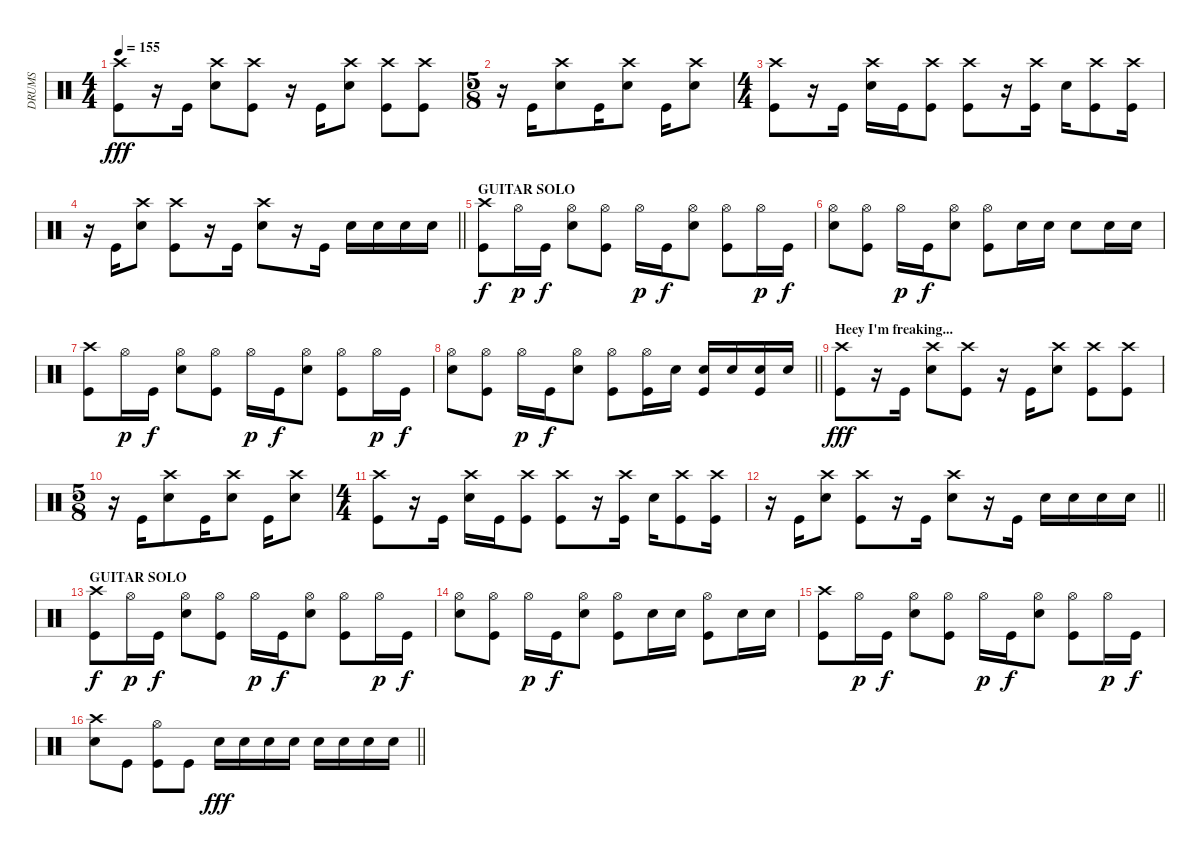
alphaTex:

\track ("DRUMS" "DRUMS") {instrument percussion}
\staff {score}
\articulation defaults
\ts (4 4)
\tempo 155
\clef neutral
\ks c
("Kick (hit)" "Crash high (hit)").8{dy fff} r.16 "Kick (hit)".16 ("Snare (hit) 2" "Crash high (hit)").8 ("Kick (hit)" "Crash high (hit)").8 r.16 "Kick (hit)".16 ("Snare (hit) 2" "Crash high (hit)").8 ("Kick (hit)" "Crash high (hit)").8 ("Kick (hit)" "Crash high (hit)").8 |
\ts (5 8)
r.16 "Kick (hit)".16 ("Snare (hit) 2" "Crash high (hit)").8 "Kick (hit)".16 ("Snare (hit) 2" "Crash high (hit)").8 "Kick (hit)".16 ("Snare (hit) 2" "Crash high (hit)").8 |
\ts (4 4)
("Kick (hit)" "Crash high (hit)").8 r.16 "Kick (hit)".16 ("Snare (hit) 2" "Crash high (hit)").16 "Kick (hit)".16 ("Kick (hit)" "Crash high (hit)").8 ("Kick (hit)" "Crash high (hit)").8 r.16 ("Kick (hit)" "Crash high (hit)").16 "Snare (hit) 2".16 ("Kick (hit)" "Crash high (hit)").8 ("Kick (hit)" "Crash high (hit)").16 |
\barLineRight lightlight
r.16 "Kick (hit)".16 ("Snare (hit) 2" "Crash high (hit)").8 ("Kick (hit)" "Crash high (hit)").8 r.16 "Kick (hit)".16 ("Snare (hit) 2" "Crash high (hit)").8 r.16 "Kick (hit)".16 "Snare (hit) 2".16 "Snare (hit) 2".16 "Snare (hit) 2".16 "Snare (hit) 2".16 |
\section ("" "GUITAR SOLO")
("Crash high (hit)" "Kick (hit)").8{dy f} "Hi-Hat (open)".16{dy p} "Kick (hit)".16{dy f} ("Snare (hit) 2" "Hi-Hat (open)").8 ("Hi-Hat (open)" "Kick (hit)").8 "Hi-Hat (open)".16{dy p} "Kick (hit)".16{dy f} ("Snare (hit) 2" "Hi-Hat (open)").8 ("Kick (hit)" "Hi-Hat (open)").8 "Hi-Hat (open)".16{dy p} "Kick (hit)".16{dy f} |
("Snare (hit) 2" "Hi-Hat (open)").8 ("Hi-Hat (open)" "Kick (hit)").8 "Hi-Hat (open)".16{dy p} "Kick (hit)".16{dy f} ("Snare (hit) 2" "Hi-Hat (open)").8 ("Kick (hit)" "Hi-Hat (open)").8 "Snare (hit) 2".16 "Snare (hit) 2".16 "Snare (hit) 2".8 "Snare (hit) 2".16 "Snare (hit) 2".16 |
("Crash high (hit)" "Kick (hit)").8 "Hi-Hat (open)".16{dy p} "Kick (hit)".16{dy f} ("Snare (hit) 2" "Hi-Hat (open)").8 ("Hi-Hat (open)" "Kick (hit)").8 "Hi-Hat (open)".16{dy p} "Kick (hit)".16{dy f} ("Snare (hit) 2" "Hi-Hat (open)").8 ("Kick (hit)" "Hi-Hat (open)").8 "Hi-Hat (open)".16{dy p} "Kick (hit)".16{dy f} |
\barLineRight lightlight
("Snare (hit) 2" "Hi-Hat (open)").8 ("Hi-Hat (open)" "Kick (hit)").8 "Hi-Hat (open)".16{dy p} "Kick (hit)".16{dy f} ("Snare (hit) 2" "Hi-Hat (open)").8 ("Kick (hit)" "Hi-Hat (open)").8 ("Hi-Hat (open)" "Kick (hit)").16 "Snare (hit) 2".16 ("Snare (hit) 2" "Kick (hit)").16 "Snare (hit) 2".16 ("Snare (hit) 2" "Kick (hit)").16 "Snare (hit) 2".16 |
\section ("" "Heey I'm freaking...")
("Kick (hit)" "Crash high (hit)").8{dy fff} r.16 "Kick (hit)".16 ("Snare (hit) 2" "Crash high (hit)").8 ("Kick (hit)" "Crash high (hit)").8 r.16 "Kick (hit)".16 ("Snare (hit) 2" "Crash high (hit)").8 ("Kick (hit)" "Crash high (hit)").8 ("Kick (hit)" "Crash high (hit)").8 |
\ts (5 8)
r.16 "Kick (hit)".16 ("Snare (hit) 2" "Crash high (hit)").8 "Kick (hit)".16 ("Snare (hit) 2" "Crash high (hit)").8 "Kick (hit)".16 ("Snare (hit) 2" "Crash high (hit)").8 |
\ts (4 4)
("Kick (hit)" "Crash high (hit)").8 r.16 "Kick (hit)".16 ("Snare (hit) 2" "Crash high (hit)").16 "Kick (hit)".16 ("Kick (hit)" "Crash high (hit)").8 ("Kick (hit)" "Crash high (hit)").8 r.16 ("Kick (hit)" "Crash high (hit)").16 "Snare (hit) 2".16 ("Kick (hit)" "Crash high (hit)").8 ("Kick (hit)" "Crash high (hit)").16 |
\barLineRight lightlight
r.16 "Kick (hit)".16 ("Snare (hit) 2" "Crash high (hit)").8 ("Kick (hit)" "Crash high (hit)").8 r.16 "Kick (hit)".16 ("Snare (hit) 2" "Crash high (hit)").8 r.16 "Kick (hit)".16 "Snare (hit) 2".16 "Snare (hit) 2".16 "Snare (hit) 2".16 "Snare (hit) 2".16 |
\section ("" "GUITAR SOLO")
("Crash high (hit)" "Kick (hit)").8{dy f} "Hi-Hat (open)".16{dy p} "Kick (hit)".16{dy f} ("Snare (hit) 2" "Hi-Hat (open)").8 ("Hi-Hat (open)" "Kick (hit)").8 "Hi-Hat (open)".16{dy p} "Kick (hit)".16{dy f} ("Snare (hit) 2" "Hi-Hat (open)").8 ("Kick (hit)" "Hi-Hat (open)").8 "Hi-Hat (open)".16{dy p} "Kick (hit)".16{dy f} |
("Snare (hit) 2" "Hi-Hat (open)").8 ("Hi-Hat (open)" "Kick (hit)").8 "Hi-Hat (open)".16{dy p} "Kick (hit)".16{dy f} ("Snare (hit) 2" "Hi-Hat (open)").8 ("Kick (hit)" "Hi-Hat (open)").8 "Snare (hit) 2".16 "Snare (hit) 2".16 ("Hi-Hat (open)" "Kick (hit)").8 "Snare (hit) 2".16 "Snare (hit) 2".16 |
("Crash high (hit)" "Kick (hit)").8 "Hi-Hat (open)".16{dy p} "Kick (hit)".16{dy f} ("Snare (hit) 2" "Hi-Hat (open)").8 ("Hi-Hat (open)" "Kick (hit)").8 "Hi-Hat (open)".16{dy p} "Kick (hit)".16{dy f} ("Snare (hit) 2" "Hi-Hat (open)").8 ("Kick (hit)" "Hi-Hat (open)").8 "Hi-Hat (open)".16{dy p} "Kick (hit)".16{dy f} |
\barLineRight lightlight
("Snare (hit) 2" "Crash high (hit)").8 "Kick (hit)".8 ("Kick (hit)" "Hi-Hat (open)").8 "Kick (hit)".8 "Snare (hit) 2".16{dy fff} "Snare (hit) 2".16 "Snare (hit) 2".16 "Snare (hit) 2".16 "Snare (hit) 2".16 "Snare (hit) 2".16 "Snare (hit) 2".16 "Snare (hit) 2".16
